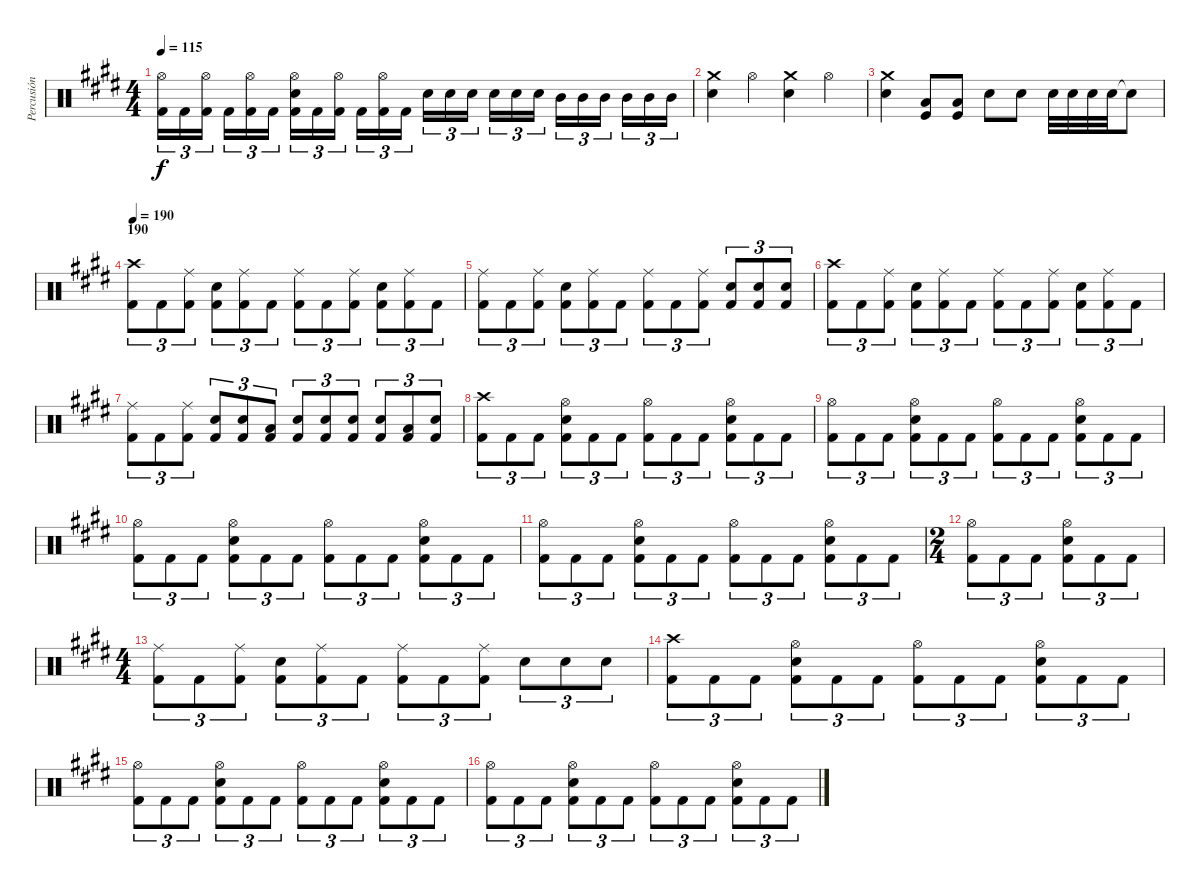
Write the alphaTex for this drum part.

\track ("Percusión" "Percusión") {instrument percussion}
\staff {score}
\articulation defaults
\ts (4 4)
\tempo 115
\clef neutral
\ks e
("Hi-Hat (open)" "Kick (hit) 2").16{tu (3 2) dy f} "Kick (hit) 2".16{tu (3 2)} ("Hi-Hat (open)" "Kick (hit) 2").16{tu (3 2)} "Kick (hit) 2".16{tu (3 2)} ("Hi-Hat (open)" "Kick (hit) 2").16{tu (3 2)} "Kick (hit) 2".16{tu (3 2)} ("Hi-Hat (open)" "Electric Snare (hit)" "Kick (hit) 2").16{tu (3 2)} "Kick (hit) 2".16{tu (3 2)} ("Hi-Hat (open)" "Kick (hit) 2").16{tu (3 2)} "Kick (hit) 2".16{tu (3 2)} ("Hi-Hat (open)" "Kick (hit) 2").16{tu (3 2)} "Kick (hit) 2".16{tu (3 2)} "Electric Snare (hit)".16{tu (3 2)} "Electric Snare (hit)".16{tu (3 2)} "Electric Snare (hit)".16{tu (3 2)} "Electric Snare (hit)".16{tu (3 2)} "Electric Snare (hit)".16{tu (3 2)} "Electric Snare (hit)".16{tu (3 2)} "Mid Tom (hit)".16{tu (3 2)} "Mid Tom (hit)".16{tu (3 2)} "Mid Tom (hit)".16{tu (3 2)} "Mid Tom (hit)".16{tu (3 2)} "Mid Tom (hit)".16{tu (3 2)} "Mid Tom (hit)".16{tu (3 2)} |
("Crash medium (hit)" "Snare (hit) 2").4 "Hi-Hat (open)".4 ("Crash medium (hit)" "Snare (hit) 2").4 "Hi-Hat (open)".4 |
("Crash medium (hit)" "Snare (hit) 2").4 ("Low Tom (hit)" "Kick (hit)").8 ("Low Tom (hit)" "Kick (hit)").8 "Electric Snare (hit)".8 "Electric Snare (hit)".8 "Snare (hit) 2".32 "Snare (hit) 2".32 "Snare (hit) 2".32 "Electric Snare (hit)".32 "Electric Snare (hit)"{t}.8 |
\section ("" "190")
\tempo 190
("Crash high (hit)" "Kick (hit) 2").8{tu (3 2)} "Kick (hit) 2".8{tu (3 2)} ("Ride (middle)" "Kick (hit) 2").8{tu (3 2)} ("Electric Snare (hit)" "Kick (hit) 2").8{tu (3 2)} ("Ride (middle)" "Kick (hit) 2").8{tu (3 2)} "Kick (hit) 2".8{tu (3 2)} ("Ride (middle)" "Kick (hit) 2").8{tu (3 2)} "Kick (hit) 2".8{tu (3 2)} ("Ride (middle)" "Kick (hit) 2").8{tu (3 2)} ("Electric Snare (hit)" "Kick (hit) 2").8{tu (3 2)} ("Ride (middle)" "Kick (hit) 2").8{tu (3 2)} "Kick (hit) 2".8{tu (3 2)} |
("Ride (middle)" "Kick (hit) 2").8{tu (3 2)} "Kick (hit) 2".8{tu (3 2)} ("Ride (middle)" "Kick (hit) 2").8{tu (3 2)} ("Electric Snare (hit)" "Kick (hit) 2").8{tu (3 2)} ("Ride (middle)" "Kick (hit) 2").8{tu (3 2)} "Kick (hit) 2".8{tu (3 2)} ("Ride (middle)" "Kick (hit) 2").8{tu (3 2)} "Kick (hit) 2".8{tu (3 2)} ("Ride (middle)" "Kick (hit) 2").8{tu (3 2)} ("Electric Snare (hit)" "Kick (hit) 2").8{tu (3 2)} ("Electric Snare (hit)" "Kick (hit) 2").8{tu (3 2)} ("Electric Snare (hit)" "Kick (hit) 2").8{tu (3 2)} |
("Crash high (hit)" "Kick (hit) 2").8{tu (3 2)} "Kick (hit) 2".8{tu (3 2)} ("Ride (middle)" "Kick (hit) 2").8{tu (3 2)} ("Electric Snare (hit)" "Kick (hit) 2").8{tu (3 2)} ("Ride (middle)" "Kick (hit) 2").8{tu (3 2)} "Kick (hit) 2".8{tu (3 2)} ("Ride (middle)" "Kick (hit) 2").8{tu (3 2)} "Kick (hit) 2".8{tu (3 2)} ("Ride (middle)" "Kick (hit) 2").8{tu (3 2)} ("Electric Snare (hit)" "Kick (hit) 2").8{tu (3 2)} ("Ride (middle)" "Kick (hit) 2").8{tu (3 2)} "Kick (hit) 2".8{tu (3 2)} |
("Ride (middle)" "Kick (hit) 2").8{tu (3 2)} "Kick (hit) 2".8{tu (3 2)} ("Ride (middle)" "Kick (hit) 2").8{tu (3 2)} ("Electric Snare (hit)" "Kick (hit) 2").8{tu (3 2)} ("Electric Snare (hit)" "Kick (hit) 2").8{tu (3 2)} ("Low Tom (hit)" "Kick (hit) 2").8{tu (3 2)} ("Electric Snare (hit)" "Kick (hit) 2").8{tu (3 2)} ("Electric Snare (hit)" "Kick (hit) 2").8{tu (3 2)} ("Electric Snare (hit)" "Kick (hit) 2").8{tu (3 2)} ("Electric Snare (hit)" "Kick (hit) 2").8{tu (3 2)} ("Low Tom (hit)" "Kick (hit) 2").8{tu (3 2)} ("Electric Snare (hit)" "Kick (hit) 2").8{tu (3 2)} |
("Crash high (hit)" "Kick (hit) 2").8{tu (3 2)} "Kick (hit) 2".8{tu (3 2)} "Kick (hit) 2".8{tu (3 2)} ("Hi-Hat (open)" "Electric Snare (hit)" "Kick (hit) 2").8{tu (3 2)} "Kick (hit) 2".8{tu (3 2)} "Kick (hit) 2".8{tu (3 2)} ("Hi-Hat (open)" "Kick (hit) 2").8{tu (3 2)} "Kick (hit) 2".8{tu (3 2)} "Kick (hit) 2".8{tu (3 2)} ("Hi-Hat (open)" "Electric Snare (hit)" "Kick (hit) 2").8{tu (3 2)} "Kick (hit) 2".8{tu (3 2)} "Kick (hit) 2".8{tu (3 2)} |
("Hi-Hat (open)" "Kick (hit) 2").8{tu (3 2)} "Kick (hit) 2".8{tu (3 2)} "Kick (hit) 2".8{tu (3 2)} ("Hi-Hat (open)" "Electric Snare (hit)" "Kick (hit) 2").8{tu (3 2)} "Kick (hit) 2".8{tu (3 2)} "Kick (hit) 2".8{tu (3 2)} ("Hi-Hat (open)" "Kick (hit) 2").8{tu (3 2)} "Kick (hit) 2".8{tu (3 2)} "Kick (hit) 2".8{tu (3 2)} ("Hi-Hat (open)" "Electric Snare (hit)" "Kick (hit) 2").8{tu (3 2)} "Kick (hit) 2".8{tu (3 2)} "Kick (hit) 2".8{tu (3 2)} |
("Hi-Hat (open)" "Kick (hit) 2").8{tu (3 2)} "Kick (hit) 2".8{tu (3 2)} "Kick (hit) 2".8{tu (3 2)} ("Hi-Hat (open)" "Electric Snare (hit)" "Kick (hit) 2").8{tu (3 2)} "Kick (hit) 2".8{tu (3 2)} "Kick (hit) 2".8{tu (3 2)} ("Hi-Hat (open)" "Kick (hit) 2").8{tu (3 2)} "Kick (hit) 2".8{tu (3 2)} "Kick (hit) 2".8{tu (3 2)} ("Hi-Hat (open)" "Electric Snare (hit)" "Kick (hit) 2").8{tu (3 2)} "Kick (hit) 2".8{tu (3 2)} "Kick (hit) 2".8{tu (3 2)} |
("Hi-Hat (open)" "Kick (hit) 2").8{tu (3 2)} "Kick (hit) 2".8{tu (3 2)} "Kick (hit) 2".8{tu (3 2)} ("Hi-Hat (open)" "Electric Snare (hit)" "Kick (hit) 2").8{tu (3 2)} "Kick (hit) 2".8{tu (3 2)} "Kick (hit) 2".8{tu (3 2)} ("Hi-Hat (open)" "Kick (hit) 2").8{tu (3 2)} "Kick (hit) 2".8{tu (3 2)} "Kick (hit) 2".8{tu (3 2)} ("Hi-Hat (open)" "Electric Snare (hit)" "Kick (hit) 2").8{tu (3 2)} "Kick (hit) 2".8{tu (3 2)} "Kick (hit) 2".8{tu (3 2)} |
\ts (2 4)
("Hi-Hat (open)" "Kick (hit) 2").8{tu (3 2)} "Kick (hit) 2".8{tu (3 2)} "Kick (hit) 2".8{tu (3 2)} ("Hi-Hat (open)" "Electric Snare (hit)" "Kick (hit) 2").8{tu (3 2)} "Kick (hit) 2".8{tu (3 2)} "Kick (hit) 2".8{tu (3 2)} |
\ts (4 4)
("Ride (middle)" "Kick (hit) 2").8{tu (3 2)} "Kick (hit) 2".8{tu (3 2)} ("Ride (middle)" "Kick (hit) 2").8{tu (3 2)} ("Electric Snare (hit)" "Kick (hit) 2").8{tu (3 2)} ("Ride (middle)" "Kick (hit) 2").8{tu (3 2)} "Kick (hit) 2".8{tu (3 2)} ("Ride (middle)" "Kick (hit) 2").8{tu (3 2)} "Kick (hit) 2".8{tu (3 2)} ("Ride (middle)" "Kick (hit) 2").8{tu (3 2)} "Electric Snare (hit)".8{tu (3 2)} "Electric Snare (hit)".8{tu (3 2)} "Electric Snare (hit)".8{tu (3 2)} |
("Crash high (hit)" "Kick (hit) 2").8{tu (3 2)} "Kick (hit) 2".8{tu (3 2)} "Kick (hit) 2".8{tu (3 2)} ("Hi-Hat (open)" "Electric Snare (hit)" "Kick (hit) 2").8{tu (3 2)} "Kick (hit) 2".8{tu (3 2)} "Kick (hit) 2".8{tu (3 2)} ("Hi-Hat (open)" "Kick (hit) 2").8{tu (3 2)} "Kick (hit) 2".8{tu (3 2)} "Kick (hit) 2".8{tu (3 2)} ("Hi-Hat (open)" "Electric Snare (hit)" "Kick (hit) 2").8{tu (3 2)} "Kick (hit) 2".8{tu (3 2)} "Kick (hit) 2".8{tu (3 2)} |
("Hi-Hat (open)" "Kick (hit) 2").8{tu (3 2)} "Kick (hit) 2".8{tu (3 2)} "Kick (hit) 2".8{tu (3 2)} ("Hi-Hat (open)" "Electric Snare (hit)" "Kick (hit) 2").8{tu (3 2)} "Kick (hit) 2".8{tu (3 2)} "Kick (hit) 2".8{tu (3 2)} ("Hi-Hat (open)" "Kick (hit) 2").8{tu (3 2)} "Kick (hit) 2".8{tu (3 2)} "Kick (hit) 2".8{tu (3 2)} ("Hi-Hat (open)" "Electric Snare (hit)" "Kick (hit) 2").8{tu (3 2)} "Kick (hit) 2".8{tu (3 2)} "Kick (hit) 2".8{tu (3 2)} |
("Hi-Hat (open)" "Kick (hit) 2").8{tu (3 2)} "Kick (hit) 2".8{tu (3 2)} "Kick (hit) 2".8{tu (3 2)} ("Hi-Hat (open)" "Electric Snare (hit)" "Kick (hit) 2").8{tu (3 2)} "Kick (hit) 2".8{tu (3 2)} "Kick (hit) 2".8{tu (3 2)} ("Hi-Hat (open)" "Kick (hit) 2").8{tu (3 2)} "Kick (hit) 2".8{tu (3 2)} "Kick (hit) 2".8{tu (3 2)} ("Hi-Hat (open)" "Electric Snare (hit)" "Kick (hit) 2").8{tu (3 2)} "Kick (hit) 2".8{tu (3 2)} "Kick (hit) 2".8{tu (3 2)}
